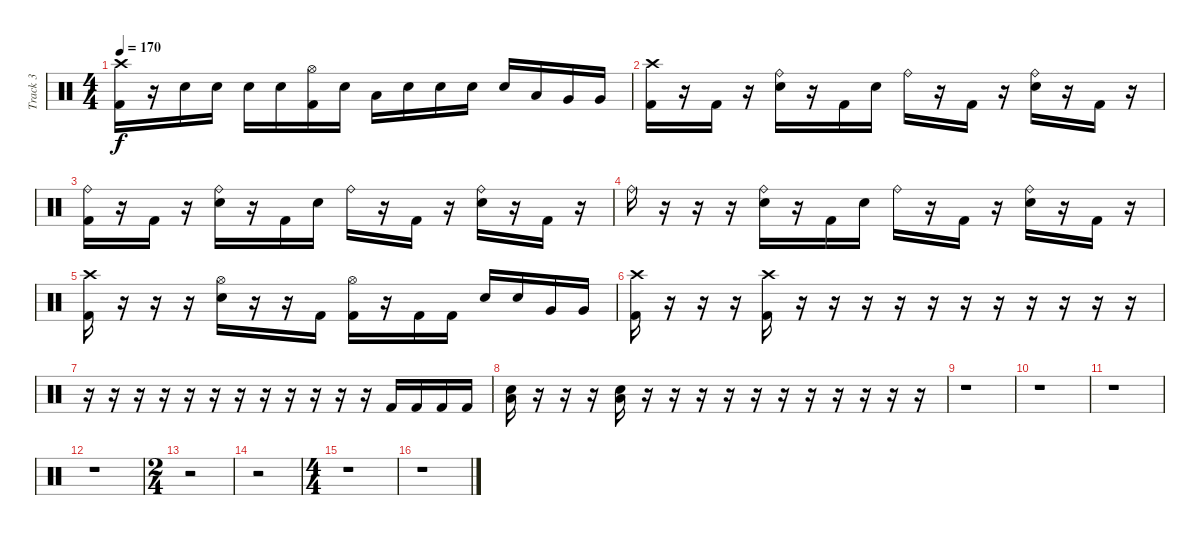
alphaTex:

\track ("Track 3" "Track 3") {instrument percussion}
\staff {score}
\articulation defaults
\ts (4 4)
\tempo 170
\clef neutral
\ks c
("Kick (hit) 2" "Crash high (hit)").16{dy f} r.16 "Electric Snare (hit)".16 "Electric Snare (hit)".16 "Electric Snare (hit)".16 "Electric Snare (hit)".16 ("Kick (hit) 2" "Hi-Hat (open)").16 "Electric Snare (hit)".16 "Low Tom (hit)".16 "Electric Snare (hit)".16 "Electric Snare (hit)".16 "Electric Snare (hit)".16 "Electric Snare (hit)".16 "Low Tom (hit)".16 "Very Low Tom (hit)".16 "Very Low Tom (hit)".16 |
("Kick (hit) 2" "Crash high (hit)").16 r.16 "Kick (hit) 2".16 r.16 ("Ride (bell)" "Electric Snare (hit)").16 r.16 "Kick (hit) 2".16 "Electric Snare (hit)".16 "Ride (bell)".16 r.16 "Kick (hit) 2".16 r.16 ("Electric Snare (hit)" "Ride (bell)").16 r.16 "Kick (hit) 2".16 r.16 |
("Ride (bell)" "Kick (hit) 2").16 r.16 "Kick (hit) 2".16 r.16 ("Ride (bell)" "Electric Snare (hit)").16 r.16 "Kick (hit) 2".16 "Electric Snare (hit)".16 "Ride (bell)".16 r.16 "Kick (hit) 2".16 r.16 ("Ride (bell)" "Electric Snare (hit)").16 r.16 "Kick (hit) 2".16 r.16 |
"Ride (bell)".16 r.16 r.16 r.16 ("Ride (bell)" "Electric Snare (hit)").16 r.16 "Kick (hit) 2".16 "Electric Snare (hit)".16 "Ride (bell)".16 r.16 "Kick (hit) 2".16 r.16 ("Ride (bell)" "Electric Snare (hit)").16 r.16 "Kick (hit) 2".16 r.16 |
("Kick (hit) 2" "Crash high (hit)").16 r.16 r.16 r.16 ("Hi-Hat (open)" "Electric Snare (hit)").16 r.16 r.16 "Kick (hit) 2".16 ("Hi-Hat (open)" "Kick (hit) 2").16 r.16 "Kick (hit) 2".16 "Kick (hit) 2".16 "Electric Snare (hit)".16 "Electric Snare (hit)".16 "Very Low Tom (hit)".16 "Very Low Tom (hit)".16 |
("Kick (hit) 2" "Crash high (hit)").16 r.16 r.16 r.16 ("Kick (hit) 2" "Crash high (hit)").16 r.16 r.16 r.16 r.16 r.16 r.16 r.16 r.16 r.16 r.16 r.16 |
r.16 r.16 r.16 r.16 r.16 r.16 r.16 r.16 r.16 r.16 r.16 r.16 "Kick (hit) 2".16 "Kick (hit) 2".16 "Kick (hit) 2".16 "Kick (hit) 2".16 |
("Electric Snare (hit)" "Low Floor Tom (hit)").16 r.16 r.16 r.16 ("Electric Snare (hit)" "Low Floor Tom (hit)").16 r.16 r.16 r.16 r.16 r.16 r.16 r.16 r.16 r.16 r.16 r.16 |
r.1 |
r.1 |
r.1 |
r.1 |
\ts (2 4)
r.2 |
r.2 |
\ts (4 4)
r.1 |
r.1
